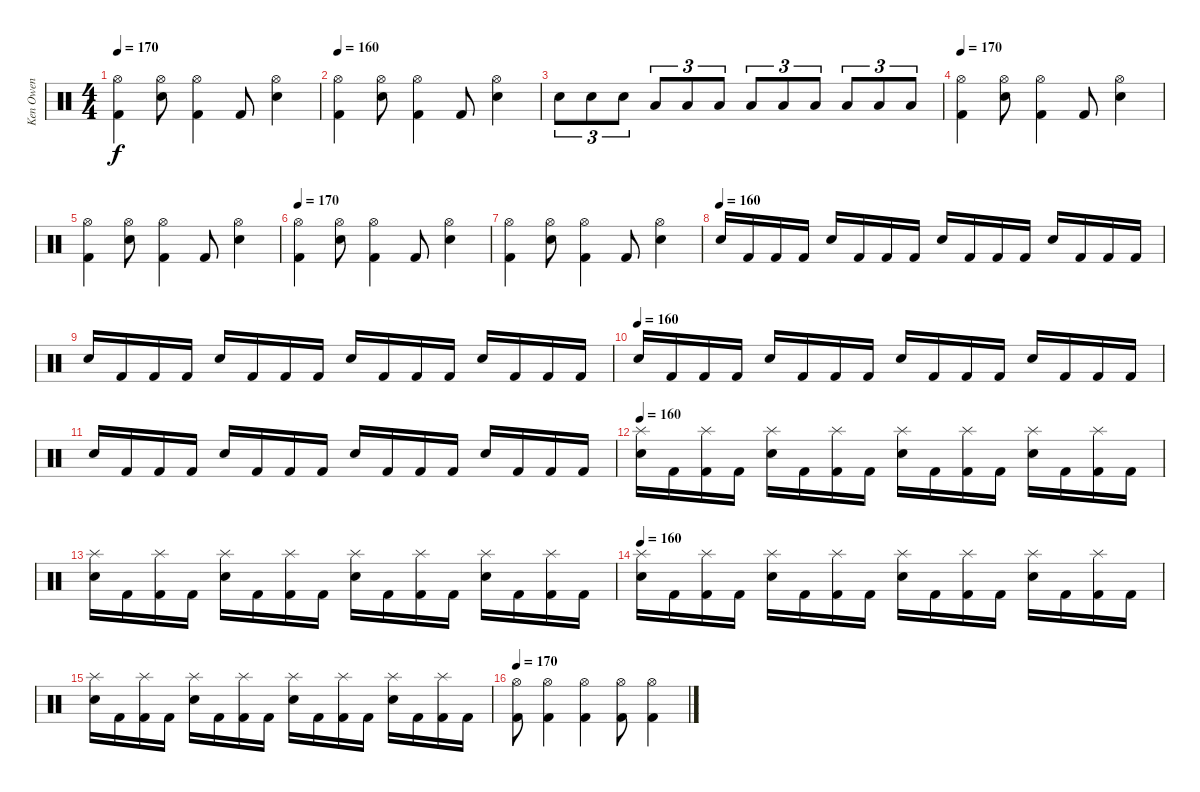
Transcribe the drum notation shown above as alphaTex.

\track ("Ken Owen" "Ken Owen") {instrument percussion}
\staff {score}
\articulation defaults
\ts (4 4)
\tempo 170
\clef neutral
\ks c
("Hi-Hat (open)" "Kick (hit) 2").4{dy f} ("Hi-Hat (open)" "Electric Snare (hit)").8 ("Hi-Hat (open)" "Kick (hit) 2").4 "Kick (hit) 2".8 ("Hi-Hat (open)" "Electric Snare (hit)").4 |
\tempo 160
("Hi-Hat (open)" "Kick (hit) 2").4 ("Hi-Hat (open)" "Electric Snare (hit)").8 ("Hi-Hat (open)" "Kick (hit) 2").4 "Kick (hit) 2".8 ("Hi-Hat (open)" "Electric Snare (hit)").4 |
"Electric Snare (hit)".8{tu (3 2)} "Electric Snare (hit)".8{tu (3 2)} "Electric Snare (hit)".8{tu (3 2)} "Low Floor Tom (hit)".8{tu (3 2)} "Low Floor Tom (hit)".8{tu (3 2)} "Low Floor Tom (hit)".8{tu (3 2)} "Low Floor Tom (hit)".8{tu (3 2)} "Low Floor Tom (hit)".8{tu (3 2)} "Low Floor Tom (hit)".8{tu (3 2)} "Low Floor Tom (hit)".8{tu (3 2)} "Low Floor Tom (hit)".8{tu (3 2)} "Low Floor Tom (hit)".8{tu (3 2)} |
\tempo 160
\tempo 170
("Hi-Hat (open)" "Kick (hit) 2").4 ("Hi-Hat (open)" "Electric Snare (hit)").8 ("Hi-Hat (open)" "Kick (hit) 2").4 "Kick (hit) 2".8 ("Hi-Hat (open)" "Electric Snare (hit)").4 |
("Hi-Hat (open)" "Kick (hit) 2").4 ("Hi-Hat (open)" "Electric Snare (hit)").8 ("Hi-Hat (open)" "Kick (hit) 2").4 "Kick (hit) 2".8 ("Hi-Hat (open)" "Electric Snare (hit)").4 |
\tempo 160
\tempo 170
("Hi-Hat (open)" "Kick (hit) 2").4 ("Hi-Hat (open)" "Electric Snare (hit)").8 ("Hi-Hat (open)" "Kick (hit) 2").4 "Kick (hit) 2".8 ("Hi-Hat (open)" "Electric Snare (hit)").4 |
("Hi-Hat (open)" "Kick (hit) 2").4 ("Hi-Hat (open)" "Electric Snare (hit)").8 ("Hi-Hat (open)" "Kick (hit) 2").4 "Kick (hit) 2".8 ("Hi-Hat (open)" "Electric Snare (hit)").4 |
\tempo (160)
"Electric Snare (hit)".16 "Kick (hit) 2".16 "Kick (hit) 2".16 "Kick (hit) 2".16 "Electric Snare (hit)".16 "Kick (hit) 2".16 "Kick (hit) 2".16 "Kick (hit) 2".16 "Electric Snare (hit)".16 "Kick (hit) 2".16 "Kick (hit) 2".16 "Kick (hit) 2".16 "Electric Snare (hit)".16 "Kick (hit) 2".16 "Kick (hit) 2".16 "Kick (hit) 2".16 |
"Electric Snare (hit)".16 "Kick (hit) 2".16 "Kick (hit) 2".16 "Kick (hit) 2".16 "Electric Snare (hit)".16 "Kick (hit) 2".16 "Kick (hit) 2".16 "Kick (hit) 2".16 "Electric Snare (hit)".16 "Kick (hit) 2".16 "Kick (hit) 2".16 "Kick (hit) 2".16 "Electric Snare (hit)".16 "Kick (hit) 2".16 "Kick (hit) 2".16 "Kick (hit) 2".16 |
\tempo (160)
"Electric Snare (hit)".16 "Kick (hit) 2".16 "Kick (hit) 2".16 "Kick (hit) 2".16 "Electric Snare (hit)".16 "Kick (hit) 2".16 "Kick (hit) 2".16 "Kick (hit) 2".16 "Electric Snare (hit)".16 "Kick (hit) 2".16 "Kick (hit) 2".16 "Kick (hit) 2".16 "Electric Snare (hit)".16 "Kick (hit) 2".16 "Kick (hit) 2".16 "Kick (hit) 2".16 |
"Electric Snare (hit)".16 "Kick (hit) 2".16 "Kick (hit) 2".16 "Kick (hit) 2".16 "Electric Snare (hit)".16 "Kick (hit) 2".16 "Kick (hit) 2".16 "Kick (hit) 2".16 "Electric Snare (hit)".16 "Kick (hit) 2".16 "Kick (hit) 2".16 "Kick (hit) 2".16 "Electric Snare (hit)".16 "Kick (hit) 2".16 "Kick (hit) 2".16 "Kick (hit) 2".16 |
\tempo 160
("Splash (hit)" "Electric Snare (hit)").16 "Kick (hit) 2".16 ("Splash (hit)" "Kick (hit) 2").16 "Kick (hit) 2".16 ("Splash (hit)" "Electric Snare (hit)").16 "Kick (hit) 2".16 ("Splash (hit)" "Kick (hit) 2").16 "Kick (hit) 2".16 ("Splash (hit)" "Electric Snare (hit)").16 "Kick (hit) 2".16 ("Splash (hit)" "Kick (hit) 2").16 "Kick (hit) 2".16 ("Splash (hit)" "Electric Snare (hit)").16 "Kick (hit) 2".16 ("Splash (hit)" "Kick (hit) 2").16 "Kick (hit) 2".16 |
("Splash (hit)" "Electric Snare (hit)").16 "Kick (hit) 2".16 ("Splash (hit)" "Kick (hit) 2").16 "Kick (hit) 2".16 ("Splash (hit)" "Electric Snare (hit)").16 "Kick (hit) 2".16 ("Splash (hit)" "Kick (hit) 2").16 "Kick (hit) 2".16 ("Splash (hit)" "Electric Snare (hit)").16 "Kick (hit) 2".16 ("Splash (hit)" "Kick (hit) 2").16 "Kick (hit) 2".16 ("Splash (hit)" "Electric Snare (hit)").16 "Kick (hit) 2".16 ("Splash (hit)" "Kick (hit) 2").16 "Kick (hit) 2".16 |
\tempo 160
("Splash (hit)" "Electric Snare (hit)").16 "Kick (hit) 2".16 ("Splash (hit)" "Kick (hit) 2").16 "Kick (hit) 2".16 ("Splash (hit)" "Electric Snare (hit)").16 "Kick (hit) 2".16 ("Splash (hit)" "Kick (hit) 2").16 "Kick (hit) 2".16 ("Splash (hit)" "Electric Snare (hit)").16 "Kick (hit) 2".16 ("Splash (hit)" "Kick (hit) 2").16 "Kick (hit) 2".16 ("Splash (hit)" "Electric Snare (hit)").16 "Kick (hit) 2".16 ("Splash (hit)" "Kick (hit) 2").16 "Kick (hit) 2".16 |
("Splash (hit)" "Electric Snare (hit)").16 "Kick (hit) 2".16 ("Splash (hit)" "Kick (hit) 2").16 "Kick (hit) 2".16 ("Splash (hit)" "Electric Snare (hit)").16 "Kick (hit) 2".16 ("Splash (hit)" "Kick (hit) 2").16 "Kick (hit) 2".16 ("Splash (hit)" "Electric Snare (hit)").16 "Kick (hit) 2".16 ("Splash (hit)" "Kick (hit) 2").16 "Kick (hit) 2".16 ("Splash (hit)" "Electric Snare (hit)").16 "Kick (hit) 2".16 ("Splash (hit)" "Kick (hit) 2").16 "Kick (hit) 2".16 |
\tempo 170
("Hi-Hat (open)" "Kick (hit) 2").8 ("Hi-Hat (open)" "Kick (hit) 2").4 ("Hi-Hat (open)" "Kick (hit) 2").4 ("Hi-Hat (open)" "Kick (hit) 2").8 ("Hi-Hat (open)" "Kick (hit) 2").4
